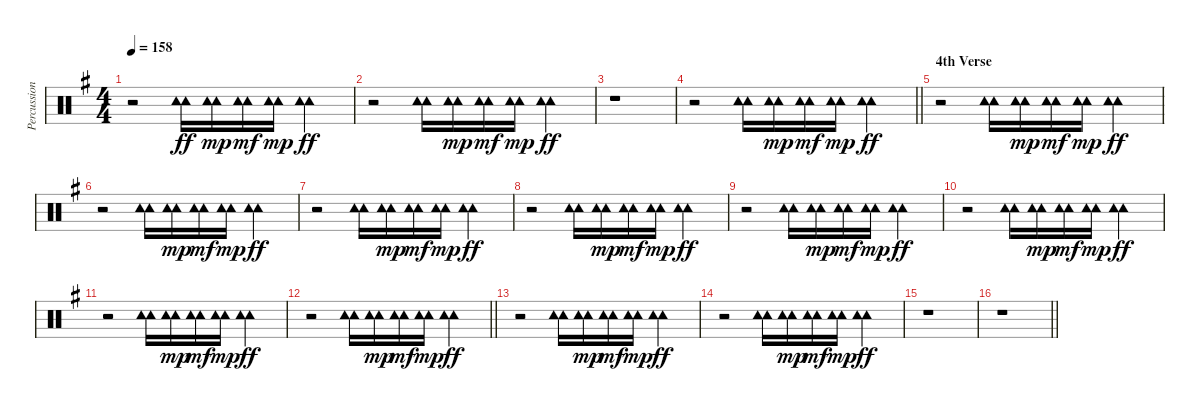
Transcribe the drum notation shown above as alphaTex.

\track ("Percussion" "Percussion") {instrument percussion}
\staff {score}
\articulation defaults
\ts (4 4)
\tempo 158
\clef neutral
\ks g
r.2{dy ff} ("Tambourine (hit)" "Tambourine (hit)").16 ("Tambourine (hit)" "Tambourine (hit)").16{dy mp} ("Tambourine (hit)" "Tambourine (hit)").16{dy mf} ("Tambourine (hit)" "Tambourine (hit)").16{dy mp} ("Tambourine (hit)" "Tambourine (hit)").4{dy ff} |
r.2 ("Tambourine (hit)" "Tambourine (hit)").16 ("Tambourine (hit)" "Tambourine (hit)").16{dy mp} ("Tambourine (hit)" "Tambourine (hit)").16{dy mf} ("Tambourine (hit)" "Tambourine (hit)").16{dy mp} ("Tambourine (hit)" "Tambourine (hit)").4{dy ff} |
r.1 |
\barLineRight lightlight
r.2 ("Tambourine (hit)" "Tambourine (hit)").16 ("Tambourine (hit)" "Tambourine (hit)").16{dy mp} ("Tambourine (hit)" "Tambourine (hit)").16{dy mf} ("Tambourine (hit)" "Tambourine (hit)").16{dy mp} ("Tambourine (hit)" "Tambourine (hit)").4{dy ff} |
\section ("" "4th Verse")
r.2 ("Tambourine (hit)" "Tambourine (hit)").16 ("Tambourine (hit)" "Tambourine (hit)").16{dy mp} ("Tambourine (hit)" "Tambourine (hit)").16{dy mf} ("Tambourine (hit)" "Tambourine (hit)").16{dy mp} ("Tambourine (hit)" "Tambourine (hit)").4{dy ff} |
r.2 ("Tambourine (hit)" "Tambourine (hit)").16 ("Tambourine (hit)" "Tambourine (hit)").16{dy mp} ("Tambourine (hit)" "Tambourine (hit)").16{dy mf} ("Tambourine (hit)" "Tambourine (hit)").16{dy mp} ("Tambourine (hit)" "Tambourine (hit)").4{dy ff} |
r.2 ("Tambourine (hit)" "Tambourine (hit)").16 ("Tambourine (hit)" "Tambourine (hit)").16{dy mp} ("Tambourine (hit)" "Tambourine (hit)").16{dy mf} ("Tambourine (hit)" "Tambourine (hit)").16{dy mp} ("Tambourine (hit)" "Tambourine (hit)").4{dy ff} |
r.2 ("Tambourine (hit)" "Tambourine (hit)").16 ("Tambourine (hit)" "Tambourine (hit)").16{dy mp} ("Tambourine (hit)" "Tambourine (hit)").16{dy mf} ("Tambourine (hit)" "Tambourine (hit)").16{dy mp} ("Tambourine (hit)" "Tambourine (hit)").4{dy ff} |
r.2 ("Tambourine (hit)" "Tambourine (hit)").16 ("Tambourine (hit)" "Tambourine (hit)").16{dy mp} ("Tambourine (hit)" "Tambourine (hit)").16{dy mf} ("Tambourine (hit)" "Tambourine (hit)").16{dy mp} ("Tambourine (hit)" "Tambourine (hit)").4{dy ff} |
r.2 ("Tambourine (hit)" "Tambourine (hit)").16 ("Tambourine (hit)" "Tambourine (hit)").16{dy mp} ("Tambourine (hit)" "Tambourine (hit)").16{dy mf} ("Tambourine (hit)" "Tambourine (hit)").16{dy mp} ("Tambourine (hit)" "Tambourine (hit)").4{dy ff} |
r.2 ("Tambourine (hit)" "Tambourine (hit)").16 ("Tambourine (hit)" "Tambourine (hit)").16{dy mp} ("Tambourine (hit)" "Tambourine (hit)").16{dy mf} ("Tambourine (hit)" "Tambourine (hit)").16{dy mp} ("Tambourine (hit)" "Tambourine (hit)").4{dy ff} |
\barLineRight lightlight
r.2 ("Tambourine (hit)" "Tambourine (hit)").16 ("Tambourine (hit)" "Tambourine (hit)").16{dy mp} ("Tambourine (hit)" "Tambourine (hit)").16{dy mf} ("Tambourine (hit)" "Tambourine (hit)").16{dy mp} ("Tambourine (hit)" "Tambourine (hit)").4{dy ff} |
r.2 ("Tambourine (hit)" "Tambourine (hit)").16 ("Tambourine (hit)" "Tambourine (hit)").16{dy mp} ("Tambourine (hit)" "Tambourine (hit)").16{dy mf} ("Tambourine (hit)" "Tambourine (hit)").16{dy mp} ("Tambourine (hit)" "Tambourine (hit)").4{dy ff} |
r.2 ("Tambourine (hit)" "Tambourine (hit)").16 ("Tambourine (hit)" "Tambourine (hit)").16{dy mp} ("Tambourine (hit)" "Tambourine (hit)").16{dy mf} ("Tambourine (hit)" "Tambourine (hit)").16{dy mp} ("Tambourine (hit)" "Tambourine (hit)").4{dy ff} |
r.1 |
\barLineRight lightlight
r.1
